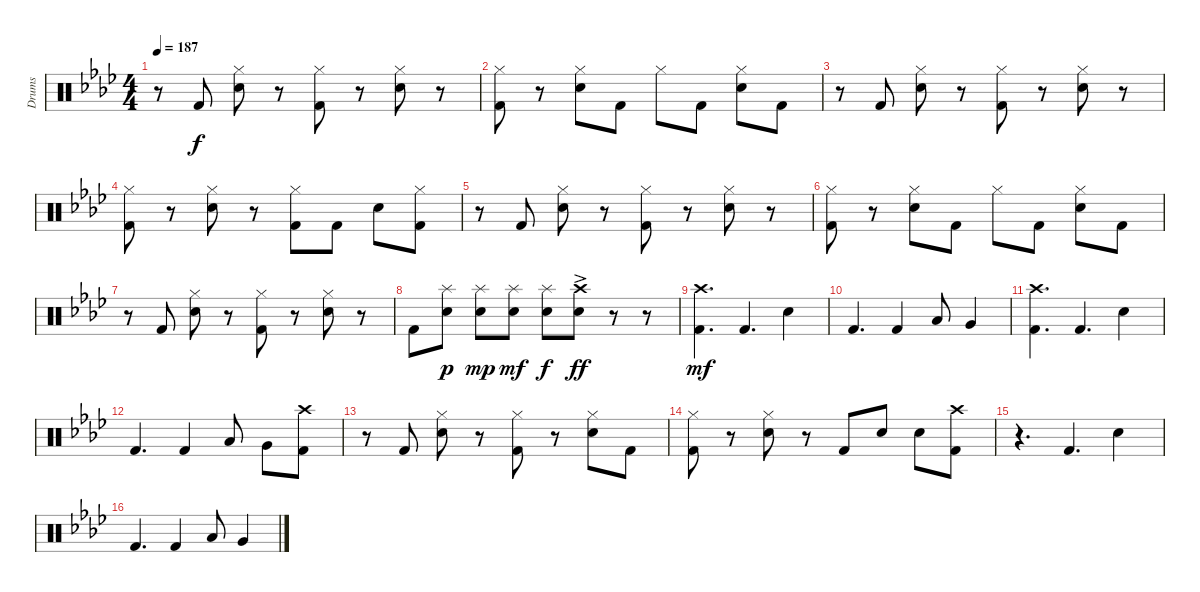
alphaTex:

\track ("Drums" "Drums") {instrument percussion}
\staff {score}
\articulation defaults
\ts (4 4)
\tempo 187
\clef neutral
\ks ab
r.8{dy f} "Kick (hit) 2".8 ("Hi-Hat (closed)" "Electric Snare (hit)").8 r.8 ("Hi-Hat (closed)" "Kick (hit) 2").8 r.8 ("Hi-Hat (closed)" "Electric Snare (hit)").8 r.8 |
("Hi-Hat (closed)" "Kick (hit) 2").8 r.8 ("Hi-Hat (closed)" "Electric Snare (hit)").8 "Kick (hit) 2".8 "Hi-Hat (closed)".8 "Kick (hit) 2".8 ("Hi-Hat (closed)" "Electric Snare (hit)").8 "Kick (hit) 2".8 |
r.8 "Kick (hit) 2".8 ("Hi-Hat (closed)" "Electric Snare (hit)").8 r.8 ("Hi-Hat (closed)" "Kick (hit) 2").8 r.8 ("Hi-Hat (closed)" "Electric Snare (hit)").8 r.8 |
("Hi-Hat (closed)" "Kick (hit) 2").8 r.8 ("Hi-Hat (closed)" "Electric Snare (hit)").8 r.8 ("Hi-Hat (closed)" "Kick (hit) 2").8 "Kick (hit) 2".8 "Electric Snare (hit)".8 ("Hi-Hat (closed)" "Kick (hit) 2").8 |
r.8 "Kick (hit) 2".8 ("Hi-Hat (closed)" "Electric Snare (hit)").8 r.8 ("Hi-Hat (closed)" "Kick (hit) 2").8 r.8 ("Hi-Hat (closed)" "Electric Snare (hit)").8 r.8 |
("Hi-Hat (closed)" "Kick (hit) 2").8 r.8 ("Hi-Hat (closed)" "Electric Snare (hit)").8 "Kick (hit) 2".8 "Hi-Hat (closed)".8 "Kick (hit) 2".8 ("Hi-Hat (closed)" "Electric Snare (hit)").8 "Kick (hit) 2".8 |
r.8 "Kick (hit) 2".8 ("Hi-Hat (closed)" "Electric Snare (hit)").8 r.8 ("Hi-Hat (closed)" "Kick (hit) 2").8 r.8 ("Hi-Hat (closed)" "Electric Snare (hit)").8 r.8 |
"Kick (hit) 2".8 ("Splash (hit)" "Electric Snare (hit)").8{dy p} ("Splash (hit)" "Electric Snare (hit)").8{dy mp} ("Splash (hit)" "Electric Snare (hit)").8{dy mf} ("Splash (hit)" "Electric Snare (hit)").8{dy f} ("Crash high (hit)"{ac} "Electric Snare (hit)"{ac}).8{dy ff} r.8 r.8 |
("Crash high (hit)" "Kick (hit) 2").4{d dy mf} "Kick (hit) 2".4{d} "Electric Snare (hit)".4 |
"Kick (hit) 2".4{d} "Kick (hit) 2".4 "Low Tom (hit)".8 "Very Low Tom (hit)".4 |
("Crash high (hit)" "Kick (hit) 2").4{d} "Kick (hit) 2".4{d} "Electric Snare (hit)".4 |
"Kick (hit) 2".4{d} "Kick (hit) 2".4 "Low Tom (hit)".8 "Very Low Tom (hit)".8 ("Crash high (hit)" "Kick (hit) 2").8 |
r.8 "Kick (hit) 2".8 ("Hi-Hat (closed)" "Electric Snare (hit)").8 r.8 ("Hi-Hat (closed)" "Kick (hit) 2").8 r.8 ("Hi-Hat (closed)" "Electric Snare (hit)").8 "Kick (hit) 2".8 |
("Hi-Hat (closed)" "Kick (hit) 2").8 r.8 ("Hi-Hat (closed)" "Electric Snare (hit)").8 r.8 "Kick (hit) 2".8 "Electric Snare (hit)".8 "Electric Snare (hit)".8 ("Crash high (hit)" "Kick (hit) 2").8 |
r.4{d} "Kick (hit) 2".4{d} "Electric Snare (hit)".4 |
"Kick (hit) 2".4{d} "Kick (hit) 2".4 "Low Tom (hit)".8 "Very Low Tom (hit)".4
